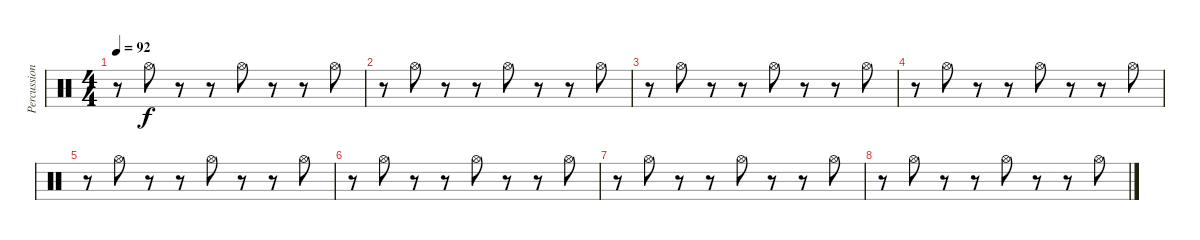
\track ("Percussions" "Percussion") {instrument percussion}
\staff {score}
\articulation defaults
\ts (4 4)
\tempo 92
\clef neutral
\ks c
r.8{dy f} "Hi-Hat (open)".8 r.8 r.8 "Hi-Hat (open)".8 r.8 r.8 "Hi-Hat (open)".8 |
r.8 "Hi-Hat (open)".8 r.8 r.8 "Hi-Hat (open)".8 r.8 r.8 "Hi-Hat (open)".8 |
r.8 "Hi-Hat (open)".8 r.8 r.8 "Hi-Hat (open)".8 r.8 r.8 "Hi-Hat (open)".8 |
r.8 "Hi-Hat (open)".8 r.8 r.8 "Hi-Hat (open)".8 r.8 r.8 "Hi-Hat (open)".8 |
r.8 "Hi-Hat (open)".8 r.8 r.8 "Hi-Hat (open)".8 r.8 r.8 "Hi-Hat (open)".8 |
r.8 "Hi-Hat (open)".8 r.8 r.8 "Hi-Hat (open)".8 r.8 r.8 "Hi-Hat (open)".8 |
r.8 "Hi-Hat (open)".8 r.8 r.8 "Hi-Hat (open)".8 r.8 r.8 "Hi-Hat (open)".8 |
r.8 "Hi-Hat (open)".8 r.8 r.8 "Hi-Hat (open)".8 r.8 r.8 "Hi-Hat (open)".8
